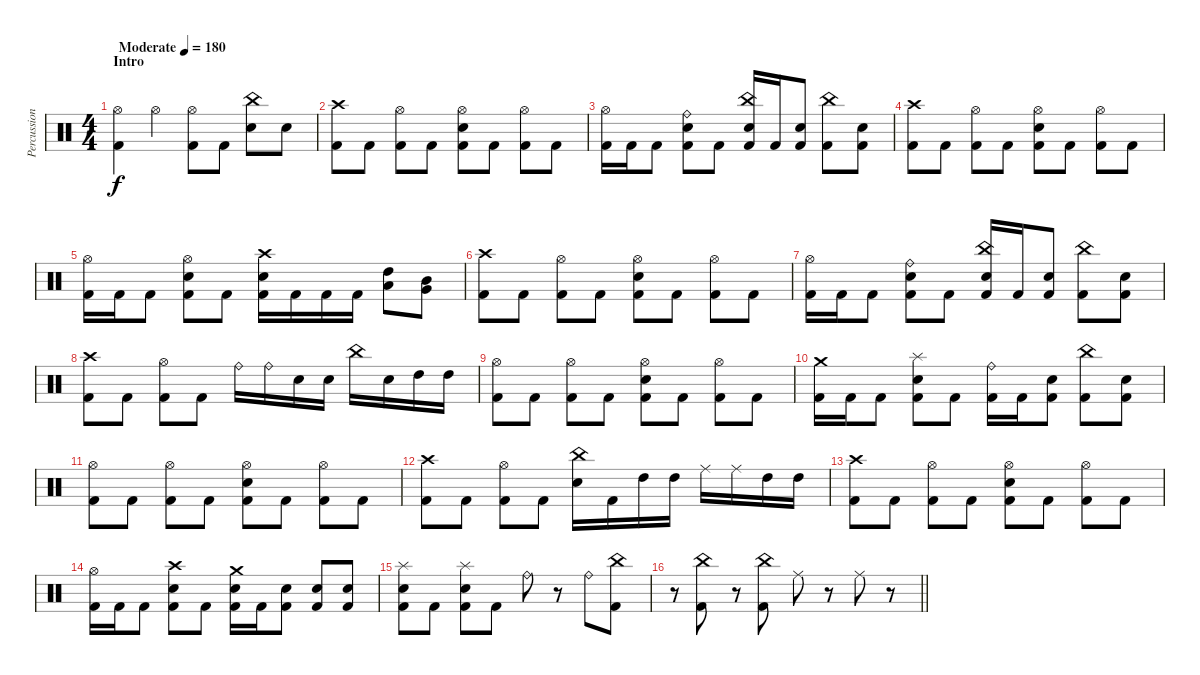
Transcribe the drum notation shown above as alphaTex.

\track ("Percussion" "Percussion") {instrument percussion}
\staff {score}
\articulation defaults
\ts (4 4)
\section ("" "Intro")
\tempo (180 "Moderate")
\clef neutral
\ks c
("Hi-Hat (open)" "Kick (hit) 2").4{dy f} "Hi-Hat (open)".4 ("Hi-Hat (open)" "Kick (hit) 2").8 "Kick (hit) 2".8 ("China (hit)" "Electric Snare (hit)").8 "Electric Snare (hit)".8 |
("Crash high (hit)" "Kick (hit) 2").8 "Kick (hit) 2".8 ("Hi-Hat (open)" "Kick (hit) 2").8 "Kick (hit) 2".8 ("Hi-Hat (open)" "Electric Snare (hit)" "Kick (hit) 2").8 "Kick (hit) 2".8 ("Hi-Hat (open)" "Kick (hit) 2").8 "Kick (hit) 2".8 |
("Hi-Hat (open)" "Kick (hit) 2").16 "Kick (hit) 2".16 "Kick (hit) 2".8 ("Ride (bell)" "Electric Snare (hit)" "Kick (hit) 2").8 "Kick (hit) 2".8 ("China (hit)" "Electric Snare (hit)" "Kick (hit) 2").16 "Kick (hit) 2".16 ("Electric Snare (hit)" "Kick (hit) 2").8 ("China (hit)" "Kick (hit) 2").8 ("Electric Snare (hit)" "Kick (hit) 2").8 |
("Crash high (hit)" "Kick (hit) 2").8 "Kick (hit) 2".8 ("Hi-Hat (open)" "Kick (hit) 2").8 "Kick (hit) 2".8 ("Hi-Hat (open)" "Electric Snare (hit)" "Kick (hit) 2").8 "Kick (hit) 2".8 ("Hi-Hat (open)" "Kick (hit) 2").8 "Kick (hit) 2".8 |
("Hi-Hat (open)" "Kick (hit) 2").16 "Kick (hit) 2".16 "Kick (hit) 2".8 ("Hi-Hat (open)" "Electric Snare (hit)" "Kick (hit) 2").8 "Kick (hit) 2".8 ("Crash high (hit)" "Electric Snare (hit)" "Kick (hit) 2").16 "Kick (hit) 2".16 "Kick (hit) 2".16 "Kick (hit) 2".16 ("Low Tom (hit)" "High Tom (hit)").8 ("Very Low Tom (hit)" "Mid Tom (hit)").8 |
("Crash high (hit)" "Kick (hit) 2").8 "Kick (hit) 2".8 ("Hi-Hat (open)" "Kick (hit) 2").8 "Kick (hit) 2".8 ("Hi-Hat (open)" "Electric Snare (hit)" "Kick (hit) 2").8 "Kick (hit) 2".8 ("Hi-Hat (open)" "Kick (hit) 2").8 "Kick (hit) 2".8 |
("Hi-Hat (open)" "Kick (hit) 2").16 "Kick (hit) 2".16 "Kick (hit) 2".8 ("Ride (bell)" "Electric Snare (hit)" "Kick (hit) 2").8 "Kick (hit) 2".8 ("China (hit)" "Electric Snare (hit)" "Kick (hit) 2").16 "Kick (hit) 2".16 ("Electric Snare (hit)" "Kick (hit) 2").8 ("China (hit)" "Kick (hit) 2").8 ("Electric Snare (hit)" "Kick (hit) 2").8 |
("Crash high (hit)" "Kick (hit) 2").8 "Kick (hit) 2".8 ("Hi-Hat (open)" "Kick (hit) 2").8 "Kick (hit) 2".8 "Ride (bell)".16 "Ride (bell)".16 "Electric Snare (hit)".16 "Electric Snare (hit)".16 "China (hit)".16 "Electric Snare (hit)".16 "High Tom (hit)".16 "High Tom (hit)".16 |
("Hi-Hat (open)" "Kick (hit) 2").8 "Kick (hit) 2".8 ("Hi-Hat (open)" "Kick (hit) 2").8 "Kick (hit) 2".8 ("Hi-Hat (open)" "Electric Snare (hit)" "Kick (hit) 2").8 "Kick (hit) 2".8 ("Hi-Hat (open)" "Kick (hit) 2").8 "Kick (hit) 2".8 |
("Crash medium (hit)" "Kick (hit) 2").16 "Kick (hit) 2".16 "Kick (hit) 2".8 ("Splash (hit)" "Electric Snare (hit)" "Kick (hit) 2").8 "Kick (hit) 2".8 ("Ride (bell)" "Kick (hit) 2").16 "Kick (hit) 2".16 ("Electric Snare (hit)" "Kick (hit) 2").8 ("China (hit)" "Kick (hit) 2").8 ("Electric Snare (hit)" "Kick (hit) 2").8 |
("Hi-Hat (open)" "Kick (hit) 2").8 "Kick (hit) 2".8 ("Hi-Hat (open)" "Kick (hit) 2").8 "Kick (hit) 2".8 ("Hi-Hat (open)" "Electric Snare (hit)" "Kick (hit) 2").8 "Kick (hit) 2".8 ("Hi-Hat (open)" "Kick (hit) 2").8 "Kick (hit) 2".8 |
("Crash high (hit)" "Kick (hit) 2").8 "Kick (hit) 2".8 ("Hi-Hat (open)" "Kick (hit) 2").8 "Kick (hit) 2".8 ("China (hit)" "Electric Snare (hit)").16 "Kick (hit) 2".16 "High Tom (hit)".16 "High Tom (hit)".16 "Ride (middle)".16 "Ride (middle)".16 "High Tom (hit)".16 "High Tom (hit)".16 |
("Crash high (hit)" "Kick (hit) 2").8 "Kick (hit) 2".8 ("Hi-Hat (open)" "Kick (hit) 2").8 "Kick (hit) 2".8 ("Hi-Hat (open)" "Electric Snare (hit)" "Kick (hit) 2").8 "Kick (hit) 2".8 ("Hi-Hat (open)" "Kick (hit) 2").8 "Kick (hit) 2".8 |
("Hi-Hat (open)" "Kick (hit) 2").16 "Kick (hit) 2".16 "Kick (hit) 2".8 ("Crash high (hit)" "Electric Snare (hit)" "Kick (hit) 2").8 "Kick (hit) 2".8 ("Crash medium (hit)" "Electric Snare (hit)" "Kick (hit) 2").16 "Kick (hit) 2".16 ("Electric Snare (hit)" "Kick (hit) 2").8 ("Electric Snare (hit)" "Kick (hit) 2").8 ("Electric Snare (hit)" "Kick (hit) 2").8 |
("Splash (hit)" "Electric Snare (hit)" "Kick (hit) 2").8 "Kick (hit) 2".8 ("Splash (hit)" "Electric Snare (hit)" "Kick (hit) 2").8 "Kick (hit) 2".8 "Ride (bell)".8 r.8 "Ride (bell)".8 ("China (hit)" "Kick (hit) 2").8 |
\barLineRight lightlight
r.8 ("China (hit)" "Kick (hit) 2").8 r.8 ("China (hit)" "Kick (hit) 2").8 "Ride (middle)".8 r.8 "Ride (middle)".8 r.8
